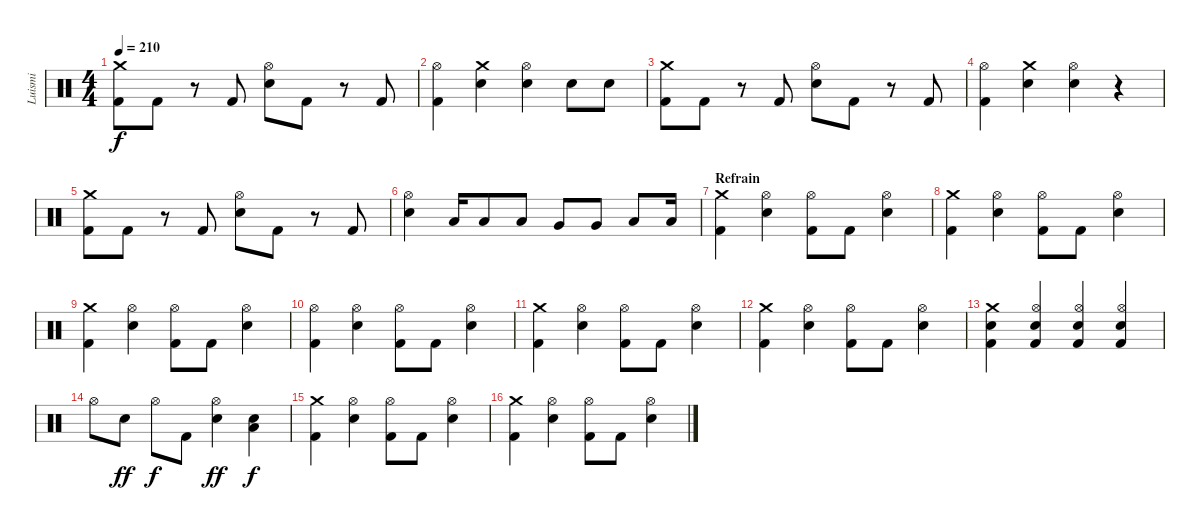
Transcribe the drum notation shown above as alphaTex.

\track ("Luismi" "Luismi") {instrument percussion}
\staff {score}
\articulation defaults
\ts (4 4)
\tempo 210
\clef neutral
\ks c
("Crash medium (hit)" "Kick (hit) 2").8{dy f} "Kick (hit) 2".8 r.8 "Kick (hit) 2".8 ("Hi-Hat (open)" "Snare (hit) 2").8 "Kick (hit) 2".8 r.8 "Kick (hit) 2".8 |
("Hi-Hat (open)" "Kick (hit) 2").4 ("Crash medium (hit)" "Snare (hit) 2").4 ("Hi-Hat (open)" "Snare (hit) 2").4 "Snare (hit) 2".8 "Snare (hit) 2".8 |
("Crash medium (hit)" "Kick (hit) 2").8 "Kick (hit) 2".8 r.8 "Kick (hit) 2".8 ("Hi-Hat (open)" "Snare (hit) 2").8 "Kick (hit) 2".8 r.8 "Kick (hit) 2".8 |
("Hi-Hat (open)" "Kick (hit) 2").4 ("Crash medium (hit)" "Snare (hit) 2").4 ("Hi-Hat (open)" "Snare (hit) 2").4 r.4 |
("Crash medium (hit)" "Kick (hit) 2").8 "Kick (hit) 2".8 r.8 "Kick (hit) 2".8 ("Hi-Hat (open)" "Snare (hit) 2").8 "Kick (hit) 2".8 r.8 "Kick (hit) 2".8 |
("Hi-Hat (open)" "Snare (hit) 2").4 "Low Tom (hit)".16 "Low Tom (hit)".8 "Low Tom (hit)".8 "Very Low Tom (hit)".8 "Very Low Tom (hit)".8 "Low Floor Tom (hit)".8 "Low Floor Tom (hit)".16 |
\section ("" "Refrain")
("Crash medium (hit)" "Kick (hit) 2").4 ("Hi-Hat (open)" "Snare (hit) 2").4 ("Hi-Hat (open)" "Kick (hit) 2").8 "Kick (hit) 2".8 ("Hi-Hat (open)" "Snare (hit) 2").4 |
("Crash medium (hit)" "Kick (hit) 2").4 ("Hi-Hat (open)" "Snare (hit) 2").4 ("Hi-Hat (open)" "Kick (hit) 2").8 "Kick (hit) 2".8 ("Hi-Hat (open)" "Snare (hit) 2").4 |
("Crash medium (hit)" "Kick (hit) 2").4 ("Hi-Hat (open)" "Snare (hit) 2").4 ("Hi-Hat (open)" "Kick (hit) 2").8 "Kick (hit) 2".8 ("Hi-Hat (open)" "Snare (hit) 2").4 |
("Hi-Hat (open)" "Kick (hit) 2").4 ("Hi-Hat (open)" "Snare (hit) 2").4 ("Hi-Hat (open)" "Kick (hit) 2").8 "Kick (hit) 2".8 ("Hi-Hat (open)" "Snare (hit) 2").4 |
("Crash medium (hit)" "Kick (hit) 2").4 ("Hi-Hat (open)" "Snare (hit) 2").4 ("Hi-Hat (open)" "Kick (hit) 2").8 "Kick (hit) 2".8 ("Hi-Hat (open)" "Snare (hit) 2").4 |
("Crash medium (hit)" "Kick (hit) 2").4 ("Hi-Hat (open)" "Snare (hit) 2").4 ("Hi-Hat (open)" "Kick (hit) 2").8 "Kick (hit) 2".8 ("Hi-Hat (open)" "Snare (hit) 2").4 |
("Crash medium (hit)" "Snare (hit) 2" "Kick (hit) 2").4 ("Hi-Hat (open)" "Snare (hit) 2" "Kick (hit) 2").4 ("Hi-Hat (open)" "Snare (hit) 2" "Kick (hit) 2").4 ("Hi-Hat (open)" "Snare (hit) 2" "Kick (hit) 2").4 |
"Hi-Hat (open)".8 "Snare (hit) 2".8{dy ff} "Hi-Hat (open)".8{dy f} "Kick (hit) 2".8 ("Hi-Hat (open)" "Snare (hit) 2").4{dy ff} ("Snare (hit) 2" "Low Floor Tom (hit)").4{dy f} |
("Crash medium (hit)" "Kick (hit) 2").4 ("Hi-Hat (open)" "Snare (hit) 2").4 ("Hi-Hat (open)" "Kick (hit) 2").8 "Kick (hit) 2".8 ("Hi-Hat (open)" "Snare (hit) 2").4 |
("Crash medium (hit)" "Kick (hit) 2").4 ("Hi-Hat (open)" "Snare (hit) 2").4 ("Hi-Hat (open)" "Kick (hit) 2").8 "Kick (hit) 2".8 ("Hi-Hat (open)" "Snare (hit) 2").4
